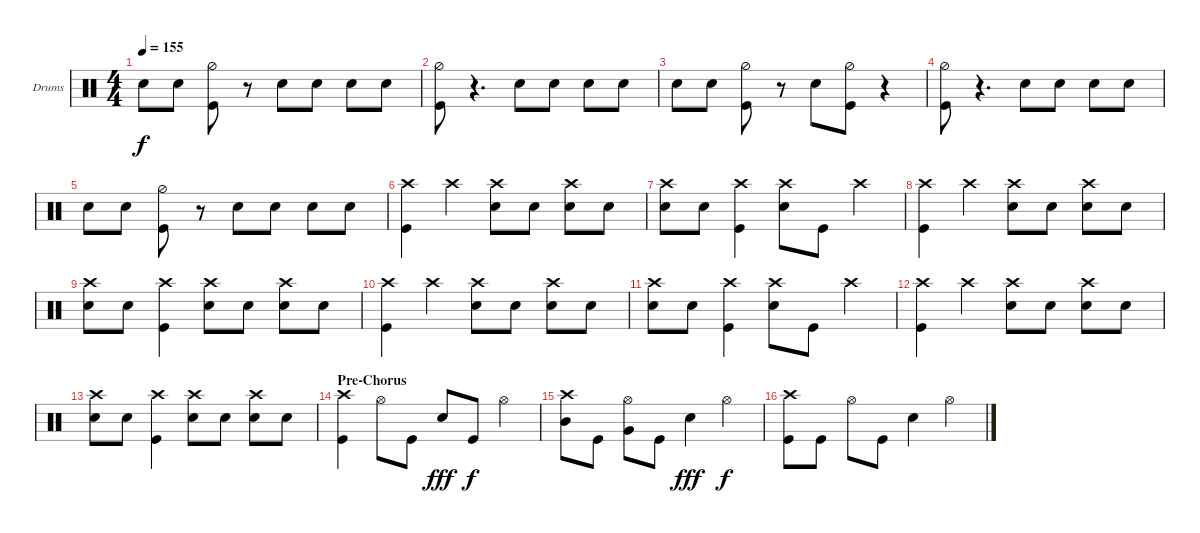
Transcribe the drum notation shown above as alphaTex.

\defaultSystemsLayout 4
\bracketExtendMode groupsimilarinstruments
\firstSystemTrackNameOrientation horizontal
\otherSystemsTrackNameOrientation horizontal
\track ("Ben Tatcher" "Drums") {instrument percussion}
\staff {score}
\articulation defaults
\ts (4 4)
\tempo 155
\clef neutral
\ks c "Snare (hit) 2".8{dy f} "Snare (hit) 2".8
("Kick (hit)" "Hi-Hat (half)").8 r.8 "Snare (hit) 2".8 "Snare (hit) 2".8 "Snare (hit) 2".8 "Snare (hit) 2".8 |
("Hi-Hat (half)" "Kick (hit)").8 r.4{d} "Snare (hit) 2".8 "Snare (hit) 2".8 "Snare (hit) 2".8 "Snare (hit) 2".8 |
"Snare (hit) 2".8 "Snare (hit) 2".8 ("Kick (hit)" "Hi-Hat (half)").8 r.8 "Snare (hit) 2".8 ("Kick (hit)" "Hi-Hat (half)").8 r.4 |
("Hi-Hat (half)" "Kick (hit)").8 r.4{d} "Snare (hit) 2".8 "Snare (hit) 2".8 "Snare (hit) 2".8 "Snare (hit) 2".8 |
"Snare (hit) 2".8 "Snare (hit) 2".8 ("Kick (hit)" "Hi-Hat (half)").8 r.8 "Snare (hit) 2".8 "Snare (hit) 2".8 "Snare (hit) 2".8 "Snare (hit) 2".8 |
("Crash high (hit)" "Kick (hit)").4 "Crash high (hit)".4 ("Snare (hit) 2" "Crash high (hit)").8 "Snare (hit) 2".8 ("Snare (hit) 2" "Crash high (hit)").8 "Snare (hit) 2".8 |
("Snare (hit) 2" "Crash high (hit)").8 "Snare (hit) 2".8 ("Crash high (hit)" "Kick (hit)").4 ("Snare (hit) 2" "Crash high (hit)").8 "Kick (hit)".8 "Crash high (hit)".4 |
("Crash high (hit)" "Kick (hit)").4 "Crash high (hit)".4 ("Snare (hit) 2" "Crash high (hit)").8 "Snare (hit) 2".8 ("Snare (hit) 2" "Crash high (hit)").8 "Snare (hit) 2".8 |
("Snare (hit) 2" "Crash high (hit)").8 "Snare (hit) 2".8 ("Crash high (hit)" "Kick (hit)").4 ("Snare (hit) 2" "Crash high (hit)").8 "Snare (hit) 2".8 ("Crash high (hit)" "Snare (hit) 2").8 "Snare (hit) 2".8 |
("Crash high (hit)" "Kick (hit)").4 "Crash high (hit)".4 ("Snare (hit) 2" "Crash high (hit)").8 "Snare (hit) 2".8 ("Snare (hit) 2" "Crash high (hit)").8 "Snare (hit) 2".8 |
("Snare (hit) 2" "Crash high (hit)").8 "Snare (hit) 2".8 ("Crash high (hit)" "Kick (hit)").4 ("Snare (hit) 2" "Crash high (hit)").8 "Kick (hit)".8 "Crash high (hit)".4 |
("Crash high (hit)" "Kick (hit)").4 "Crash high (hit)".4 ("Snare (hit) 2" "Crash high (hit)").8 "Snare (hit) 2".8 ("Snare (hit) 2" "Crash high (hit)").8 "Snare (hit) 2".8 |
("Snare (hit) 2" "Crash high (hit)").8 "Snare (hit) 2".8 ("Crash high (hit)" "Kick (hit)").4 ("Snare (hit) 2" "Crash high (hit)").8 "Snare (hit) 2".8 ("Crash high (hit)" "Snare (hit) 2").8 "Snare (hit) 2".8 |
\section ("" "Pre-Chorus")
("Crash high (hit)" "Kick (hit)").4 "Hi-Hat (open)".8 "Kick (hit)".8 "Snare (hit) 2".8{dy fff} "Kick (hit)".8{dy f} "Hi-Hat (open)".4 |
("Crash high (hit)" "Mid Tom (hit)").8 "Kick (hit)".8 ("Very Low Tom (hit)" "Hi-Hat (open)").8 "Kick (hit)".8 "Snare (hit) 2".4{dy fff} "Hi-Hat (open)".4{dy f} |
("Kick (hit)" "Crash high (hit)").8 "Kick (hit)".8 "Hi-Hat (open)".8 "Kick (hit)".8 "Snare (hit) 2".4 "Hi-Hat (open)".4
